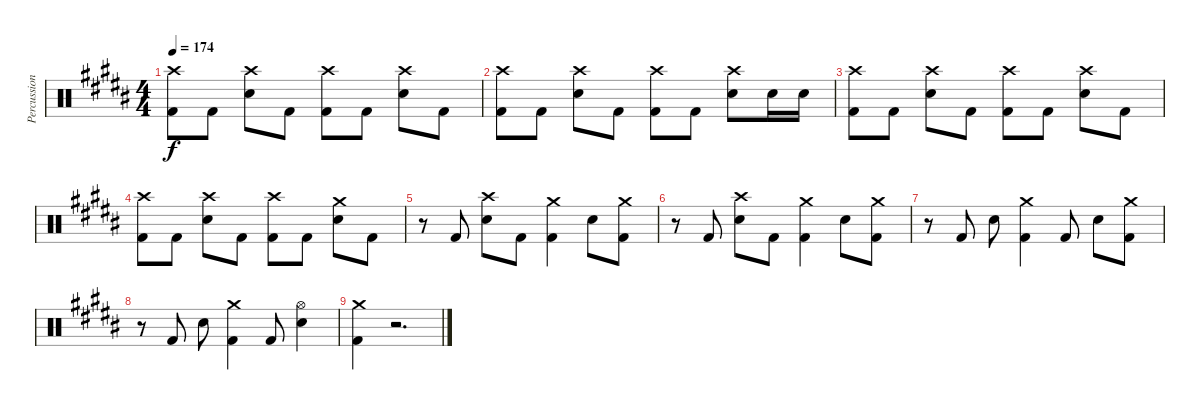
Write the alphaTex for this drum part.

\track ("Percussion" "Percussion") {instrument percussion}
\staff {score}
\articulation defaults
\ts (4 4)
\tempo 174
\clef neutral
\ks b
("Crash high (hit)" "Kick (hit) 2").8{dy f} "Kick (hit) 2".8 ("Crash high (hit)" "Electric Snare (hit)").8 "Kick (hit) 2".8 ("Crash high (hit)" "Kick (hit) 2").8 "Kick (hit) 2".8 ("Crash high (hit)" "Electric Snare (hit)").8 "Kick (hit) 2".8 |
("Crash high (hit)" "Kick (hit) 2").8 "Kick (hit) 2".8 ("Crash high (hit)" "Electric Snare (hit)").8 "Kick (hit) 2".8 ("Crash high (hit)" "Kick (hit) 2").8 "Kick (hit) 2".8 ("Crash high (hit)" "Electric Snare (hit)").8 "Electric Snare (hit)".16 "Electric Snare (hit)".16 |
("Crash high (hit)" "Kick (hit) 2").8 "Kick (hit) 2".8 ("Crash high (hit)" "Electric Snare (hit)").8 "Kick (hit) 2".8 ("Crash high (hit)" "Kick (hit) 2").8 "Kick (hit) 2".8 ("Crash high (hit)" "Electric Snare (hit)").8 "Kick (hit) 2".8 |
("Crash high (hit)" "Kick (hit) 2").8 "Kick (hit) 2".8 ("Crash high (hit)" "Electric Snare (hit)").8 "Kick (hit) 2".8 ("Crash high (hit)" "Kick (hit) 2").8 "Kick (hit) 2".8 ("Crash medium (hit)" "Electric Snare (hit)").8 "Kick (hit) 2".8 |
r.8 "Kick (hit) 2".8 ("Crash high (hit)" "Electric Snare (hit)").8 "Kick (hit) 2".8 ("Crash medium (hit)" "Kick (hit) 2").4 "Electric Snare (hit)".8 ("Crash medium (hit)" "Kick (hit) 2").8 |
r.8 "Kick (hit) 2".8 ("Crash high (hit)" "Electric Snare (hit)").8 "Kick (hit) 2".8 ("Crash medium (hit)" "Kick (hit) 2").4 "Electric Snare (hit)".8 ("Crash medium (hit)" "Kick (hit) 2").8 |
r.8 "Kick (hit) 2".8 "Electric Snare (hit)".8 ("Crash medium (hit)" "Kick (hit) 2").4 "Kick (hit) 2".8 "Electric Snare (hit)".8 ("Crash medium (hit)" "Kick (hit) 2").8 |
r.8 "Kick (hit) 2".8 "Electric Snare (hit)".8 ("Crash medium (hit)" "Kick (hit) 2").4 "Kick (hit) 2".8 ("Hi-Hat (open)" "Electric Snare (hit)").4 |
("Crash medium (hit)" "Kick (hit) 2").4 r.2{d}
